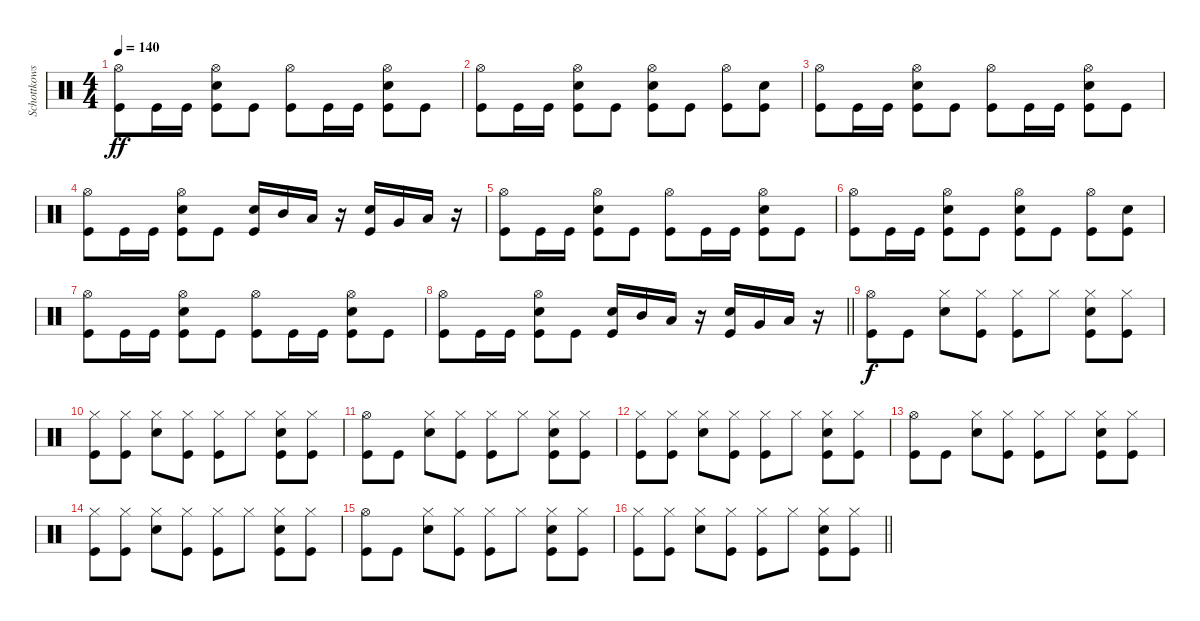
\track ("Schottkowski" "Schottkows") {instrument percussion}
\staff {score}
\articulation defaults
\ts (4 4)
\section ("" "")
\tempo 140
\clef neutral
\ks c
("Hi-Hat (open)" "Kick (hit)").8{dy ff} "Kick (hit)".16 "Kick (hit)".16 ("Hi-Hat (open)" "Snare (hit) 2" "Kick (hit)").8 "Kick (hit)".8 ("Hi-Hat (open)" "Kick (hit)").8 "Kick (hit)".16 "Kick (hit)".16 ("Hi-Hat (open)" "Snare (hit) 2" "Kick (hit)").8 "Kick (hit)".8 |
("Hi-Hat (open)" "Kick (hit)").8 "Kick (hit)".16 "Kick (hit)".16 ("Hi-Hat (open)" "Snare (hit) 2" "Kick (hit)").8 "Kick (hit)".8 ("Hi-Hat (open)" "Snare (hit) 2" "Kick (hit)").8 "Kick (hit)".8 ("Hi-Hat (open)" "Kick (hit)").8 ("Snare (hit) 2" "Kick (hit)").8 |
("Hi-Hat (open)" "Kick (hit)").8 "Kick (hit)".16 "Kick (hit)".16 ("Hi-Hat (open)" "Snare (hit) 2" "Kick (hit)").8 "Kick (hit)".8 ("Hi-Hat (open)" "Kick (hit)").8 "Kick (hit)".16 "Kick (hit)".16 ("Hi-Hat (open)" "Snare (hit) 2" "Kick (hit)").8 "Kick (hit)".8 |
("Hi-Hat (open)" "Kick (hit)").8 "Kick (hit)".16 "Kick (hit)".16 ("Hi-Hat (open)" "Snare (hit) 2" "Kick (hit)").8 "Kick (hit)".8 ("Snare (hit) 2" "Kick (hit)").16 "Mid Tom (hit)".16 "Low Tom (hit)".16 r.16 ("Snare (hit) 2" "Kick (hit)").16 "Very Low Tom (hit)".16 "Low Floor Tom (hit)".16 r.16 |
("Hi-Hat (open)" "Kick (hit)").8 "Kick (hit)".16 "Kick (hit)".16 ("Hi-Hat (open)" "Snare (hit) 2" "Kick (hit)").8 "Kick (hit)".8 ("Hi-Hat (open)" "Kick (hit)").8 "Kick (hit)".16 "Kick (hit)".16 ("Hi-Hat (open)" "Snare (hit) 2" "Kick (hit)").8 "Kick (hit)".8 |
("Hi-Hat (open)" "Kick (hit)").8 "Kick (hit)".16 "Kick (hit)".16 ("Hi-Hat (open)" "Snare (hit) 2" "Kick (hit)").8 "Kick (hit)".8 ("Hi-Hat (open)" "Snare (hit) 2" "Kick (hit)").8 "Kick (hit)".8 ("Hi-Hat (open)" "Kick (hit)").8 ("Snare (hit) 2" "Kick (hit)").8 |
("Hi-Hat (open)" "Kick (hit)").8 "Kick (hit)".16 "Kick (hit)".16 ("Hi-Hat (open)" "Snare (hit) 2" "Kick (hit)").8 "Kick (hit)".8 ("Hi-Hat (open)" "Kick (hit)").8 "Kick (hit)".16 "Kick (hit)".16 ("Hi-Hat (open)" "Snare (hit) 2" "Kick (hit)").8 "Kick (hit)".8 |
\barLineRight lightlight
("Hi-Hat (open)" "Kick (hit)").8 "Kick (hit)".16 "Kick (hit)".16 ("Hi-Hat (open)" "Snare (hit) 2" "Kick (hit)").8 "Kick (hit)".8 ("Snare (hit) 2" "Kick (hit)").16 "Mid Tom (hit)".16 "Low Tom (hit)".16 r.16 ("Snare (hit) 2" "Kick (hit)").16 "Very Low Tom (hit)".16 "Low Floor Tom (hit)".16 r.16 |
\section ("" "")
("Hi-Hat (open)" "Kick (hit)").8{dy f} "Kick (hit)".8 ("Hi-Hat (closed)" "Snare (hit) 2").8 ("Hi-Hat (closed)" "Kick (hit)").8 ("Hi-Hat (closed)" "Kick (hit)").8 "Hi-Hat (closed)".8 ("Hi-Hat (closed)" "Snare (hit) 2" "Kick (hit)").8 ("Hi-Hat (closed)" "Kick (hit)").8 |
("Hi-Hat (closed)" "Kick (hit)").8 ("Hi-Hat (closed)" "Kick (hit)").8 ("Hi-Hat (closed)" "Snare (hit) 2").8 ("Hi-Hat (closed)" "Kick (hit)").8 ("Hi-Hat (closed)" "Kick (hit)").8 "Hi-Hat (closed)".8 ("Hi-Hat (closed)" "Snare (hit) 2" "Kick (hit)").8 ("Hi-Hat (closed)" "Kick (hit)").8 |
("Hi-Hat (open)" "Kick (hit)").8 "Kick (hit)".8 ("Hi-Hat (closed)" "Snare (hit) 2").8 ("Hi-Hat (closed)" "Kick (hit)").8 ("Hi-Hat (closed)" "Kick (hit)").8 "Hi-Hat (closed)".8 ("Hi-Hat (closed)" "Snare (hit) 2" "Kick (hit)").8 ("Hi-Hat (closed)" "Kick (hit)").8 |
("Hi-Hat (closed)" "Kick (hit)").8 ("Hi-Hat (closed)" "Kick (hit)").8 ("Hi-Hat (closed)" "Snare (hit) 2").8 ("Hi-Hat (closed)" "Kick (hit)").8 ("Hi-Hat (closed)" "Kick (hit)").8 "Hi-Hat (closed)".8 ("Hi-Hat (closed)" "Snare (hit) 2" "Kick (hit)").8 ("Hi-Hat (closed)" "Kick (hit)").8 |
("Hi-Hat (open)" "Kick (hit)").8 "Kick (hit)".8 ("Hi-Hat (closed)" "Snare (hit) 2").8 ("Hi-Hat (closed)" "Kick (hit)").8 ("Hi-Hat (closed)" "Kick (hit)").8 "Hi-Hat (closed)".8 ("Hi-Hat (closed)" "Snare (hit) 2" "Kick (hit)").8 ("Hi-Hat (closed)" "Kick (hit)").8 |
("Hi-Hat (closed)" "Kick (hit)").8 ("Hi-Hat (closed)" "Kick (hit)").8 ("Hi-Hat (closed)" "Snare (hit) 2").8 ("Hi-Hat (closed)" "Kick (hit)").8 ("Hi-Hat (closed)" "Kick (hit)").8 "Hi-Hat (closed)".8 ("Hi-Hat (closed)" "Snare (hit) 2" "Kick (hit)").8 ("Hi-Hat (closed)" "Kick (hit)").8 |
("Hi-Hat (open)" "Kick (hit)").8 "Kick (hit)".8 ("Hi-Hat (closed)" "Snare (hit) 2").8 ("Hi-Hat (closed)" "Kick (hit)").8 ("Hi-Hat (closed)" "Kick (hit)").8 "Hi-Hat (closed)".8 ("Hi-Hat (closed)" "Snare (hit) 2" "Kick (hit)").8 ("Hi-Hat (closed)" "Kick (hit)").8 |
\barLineRight lightlight
("Hi-Hat (closed)" "Kick (hit)").8 ("Hi-Hat (closed)" "Kick (hit)").8 ("Hi-Hat (closed)" "Snare (hit) 2").8 ("Hi-Hat (closed)" "Kick (hit)").8 ("Hi-Hat (closed)" "Kick (hit)").8 "Hi-Hat (closed)".8 ("Hi-Hat (closed)" "Snare (hit) 2" "Kick (hit)").8 ("Hi-Hat (closed)" "Kick (hit)").8
